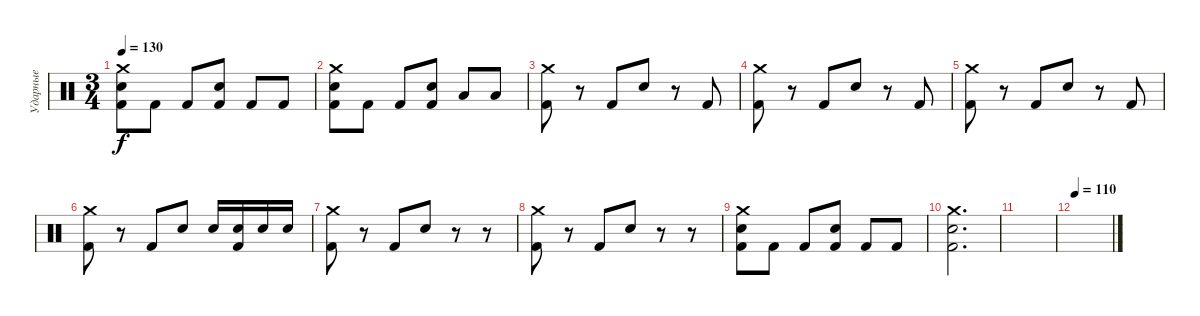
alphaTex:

\track ("Ударные" "Ударные") {instrument percussion}
\staff {score}
\articulation defaults
\ts (3 4)
\tempo 130
\clef neutral
\ks c
("Crash medium (hit)" "Electric Snare (hit)" "Kick (hit) 2").8{dy f} "Kick (hit) 2".8 "Kick (hit) 2".8 ("Electric Snare (hit)" "Kick (hit) 2").8 "Kick (hit) 2".8 "Kick (hit) 2".8 |
("Crash medium (hit)" "Electric Snare (hit)" "Kick (hit) 2").8 "Kick (hit) 2".8 "Kick (hit) 2".8 ("Electric Snare (hit)" "Kick (hit) 2").8 "Low Floor Tom (hit)".8 "Low Floor Tom (hit)".8 |
("Crash medium (hit)" "Kick (hit) 2").8 r.8 "Kick (hit) 2".8 "Electric Snare (hit)".8 r.8 "Kick (hit) 2".8 |
("Crash medium (hit)" "Kick (hit) 2").8 r.8 "Kick (hit) 2".8 "Electric Snare (hit)".8 r.8 "Kick (hit) 2".8 |
("Crash medium (hit)" "Kick (hit) 2").8 r.8 "Kick (hit) 2".8 "Electric Snare (hit)".8 r.8 "Kick (hit) 2".8 |
("Crash medium (hit)" "Kick (hit) 2").8 r.8 "Kick (hit) 2".8 "Electric Snare (hit)".8 "Electric Snare (hit)".16 ("Electric Snare (hit)" "Kick (hit) 2").16 "Electric Snare (hit)".16 "Electric Snare (hit)".16 |
("Crash medium (hit)" "Kick (hit) 2").8 r.8 "Kick (hit) 2".8 "Electric Snare (hit)".8 r.8 r.8 |
("Crash medium (hit)" "Kick (hit) 2").8 r.8 "Kick (hit) 2".8 "Electric Snare (hit)".8 r.8 r.8 |
("Crash medium (hit)" "Electric Snare (hit)" "Kick (hit) 2").8 "Kick (hit) 2".8 "Kick (hit) 2".8 ("Electric Snare (hit)" "Kick (hit) 2").8 "Kick (hit) 2".8 "Kick (hit) 2".8 |
("Crash medium (hit)" "Electric Snare (hit)" "Kick (hit) 2").2{d} |
|
\tempo 110
